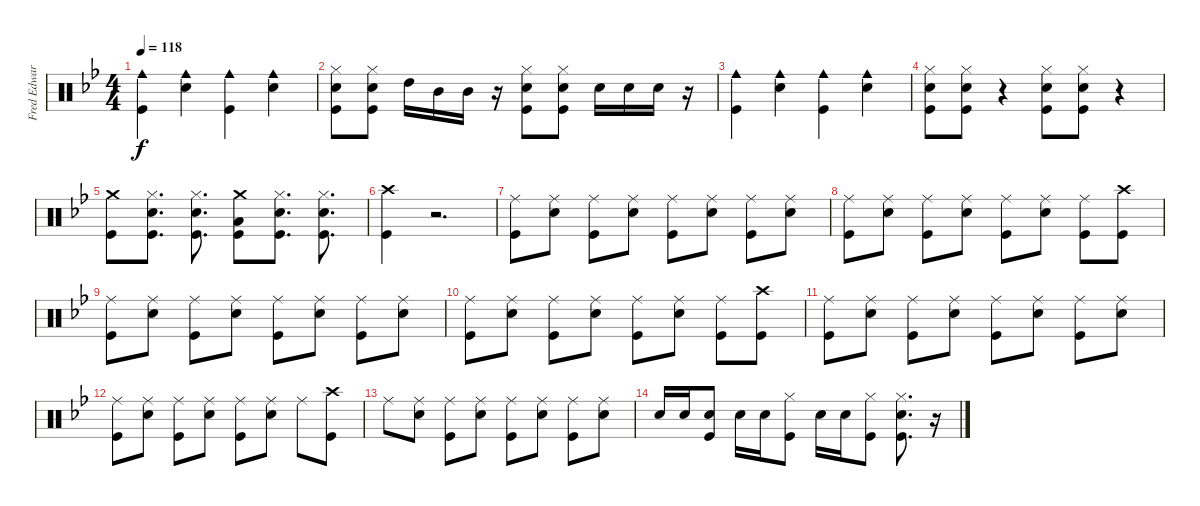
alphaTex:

\track ("Fred Edwards Drums" "Fred Edwar") {instrument percussion}
\staff {score}
\articulation defaults
\ts (4 4)
\tempo 118
\clef neutral
\ks gminor
("Cowbell medium (hit)" "Kick (hit)").4{dy f} ("Cowbell medium (hit)" "Snare (hit) 2").4 ("Cowbell medium (hit)" "Kick (hit)").4 ("Cowbell medium (hit)" "Snare (hit) 2").4 |
("Hi-Hat (closed)" "Snare (hit) 2" "Kick (hit)").8 ("Hi-Hat (closed)" "Snare (hit) 2" "Kick (hit)").8 "High Tom (hit)".16 "Mid Tom (hit)".16 "Mid Tom (hit)".16 r.16 ("Hi-Hat (closed)" "Snare (hit) 2" "Kick (hit)").8 ("Hi-Hat (closed)" "Snare (hit) 2" "Kick (hit)").8 "Snare (hit) 2".16 "Snare (hit) 2".16 "Snare (hit) 2".16 r.16 |
("Cowbell medium (hit)" "Kick (hit)").4 ("Cowbell medium (hit)" "Snare (hit) 2").4 ("Cowbell medium (hit)" "Kick (hit)").4 ("Cowbell medium (hit)" "Snare (hit) 2").4 |
("Hi-Hat (closed)" "Snare (hit) 2" "Kick (hit)").8 ("Hi-Hat (closed)" "Snare (hit) 2" "Kick (hit)").8 r.4 ("Hi-Hat (closed)" "Snare (hit) 2" "Kick (hit)").8 ("Hi-Hat (closed)" "Snare (hit) 2" "Kick (hit)").8 r.4 |
("Crash medium (hit)" "Kick (hit)").8 ("Hi-Hat (closed)" "Snare (hit) 2" "Kick (hit)").8{d} ("Hi-Hat (closed)" "Snare (hit) 2" "Kick (hit)").8{d} ("Crash medium (hit)" "Low Floor Tom (hit)" "Kick (hit)").8 ("Hi-Hat (closed)" "Snare (hit) 2" "Kick (hit)").8{d} ("Hi-Hat (closed)" "Snare (hit) 2" "Kick (hit)").8{d} |
("Crash high (hit)" "Kick (hit)").4 r.2{d} |
("Ride (middle)" "Kick (hit)").8 ("Ride (middle)" "Snare (hit) 2").8 ("Ride (middle)" "Kick (hit)").8 ("Ride (middle)" "Snare (hit) 2").8 ("Ride (middle)" "Kick (hit)").8 ("Ride (middle)" "Snare (hit) 2").8 ("Ride (middle)" "Kick (hit)").8 ("Ride (middle)" "Snare (hit) 2").8 |
("Ride (middle)" "Kick (hit)").8 ("Ride (middle)" "Snare (hit) 2").8 ("Ride (middle)" "Kick (hit)").8 ("Ride (middle)" "Snare (hit) 2").8 ("Ride (middle)" "Kick (hit)").8 ("Ride (middle)" "Snare (hit) 2").8 ("Ride (middle)" "Kick (hit)").8 ("Crash high (hit)" "Kick (hit)").8 |
("Ride (middle)" "Kick (hit)").8 ("Ride (middle)" "Snare (hit) 2").8 ("Ride (middle)" "Kick (hit)").8 ("Ride (middle)" "Snare (hit) 2").8 ("Ride (middle)" "Kick (hit)").8 ("Ride (middle)" "Snare (hit) 2").8 ("Ride (middle)" "Kick (hit)").8 ("Ride (middle)" "Snare (hit) 2").8 |
("Ride (middle)" "Kick (hit)").8 ("Ride (middle)" "Snare (hit) 2").8 ("Ride (middle)" "Kick (hit)").8 ("Ride (middle)" "Snare (hit) 2").8 ("Ride (middle)" "Kick (hit)").8 ("Ride (middle)" "Snare (hit) 2").8 ("Ride (middle)" "Kick (hit)").8 ("Crash high (hit)" "Kick (hit)").8 |
("Ride (middle)" "Kick (hit)").8 ("Ride (middle)" "Snare (hit) 2").8 ("Ride (middle)" "Kick (hit)").8 ("Ride (middle)" "Snare (hit) 2").8 ("Ride (middle)" "Kick (hit)").8 ("Ride (middle)" "Snare (hit) 2").8 ("Ride (middle)" "Kick (hit)").8 ("Ride (middle)" "Snare (hit) 2").8 |
("Ride (middle)" "Kick (hit)").8 ("Ride (middle)" "Snare (hit) 2").8 ("Ride (middle)" "Kick (hit)").8 ("Ride (middle)" "Snare (hit) 2").8 ("Ride (middle)" "Kick (hit)").8 ("Ride (middle)" "Snare (hit) 2").8 "Ride (middle)".8 ("Crash high (hit)" "Kick (hit)").8 |
"Ride (middle)".8 ("Ride (middle)" "Snare (hit) 2").8 ("Ride (middle)" "Kick (hit)").8 ("Ride (middle)" "Snare (hit) 2").8 ("Ride (middle)" "Kick (hit)").8 ("Ride (middle)" "Snare (hit) 2").8 ("Ride (middle)" "Kick (hit)").8 ("Ride (middle)" "Snare (hit) 2").8 |
"Snare (hit) 2".16 "Snare (hit) 2".16 ("Snare (hit) 2" "Kick (hit)").8 "Snare (hit) 2".16 "Snare (hit) 2".16 ("Hi-Hat (closed)" "Kick (hit)").8 "Snare (hit) 2".16 "Snare (hit) 2".16 ("Hi-Hat (closed)" "Kick (hit)").8 ("Hi-Hat (closed)" "Snare (hit) 2" "Kick (hit)").8{d} r.16
